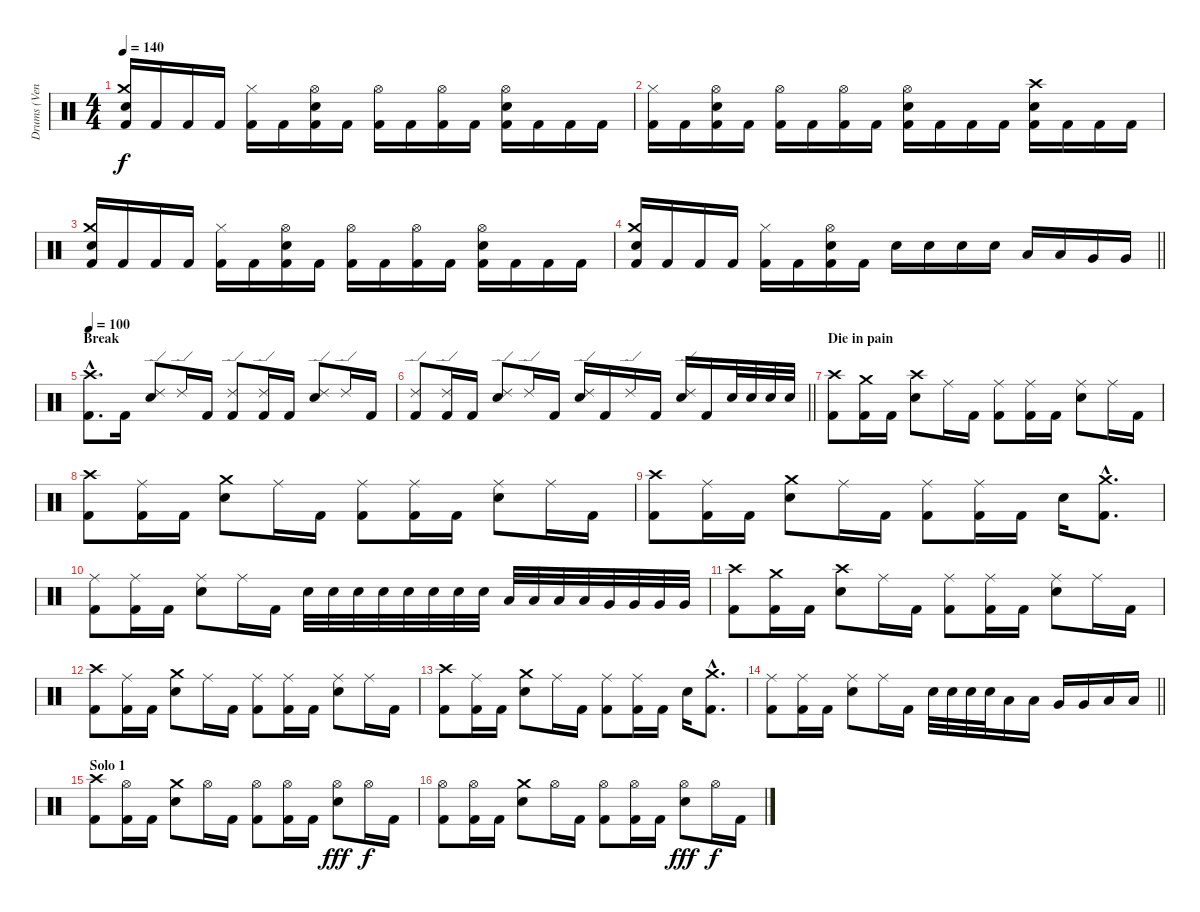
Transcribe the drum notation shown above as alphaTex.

\track ("Drums (Ventor)" "Drums (Ven") {instrument percussion}
\staff {score}
\articulation defaults
\ts (4 4)
\tempo 140
\clef neutral
\ks c
("Electric Snare (hit)" "Crash medium (hit)" "Kick (hit) 2").16{dy f} "Kick (hit) 2".16 "Kick (hit) 2".16 "Kick (hit) 2".16 ("Hi-Hat (closed)" "Kick (hit) 2").16 "Kick (hit) 2".16 ("Electric Snare (hit)" "Hi-Hat (open)" "Kick (hit) 2").16 "Kick (hit) 2".16 ("Hi-Hat (open)" "Kick (hit) 2").16 "Kick (hit) 2".16 ("Hi-Hat (open)" "Kick (hit) 2").16 "Kick (hit) 2".16 ("Electric Snare (hit)" "Hi-Hat (open)" "Kick (hit) 2").16 "Kick (hit) 2".16 "Kick (hit) 2".16 "Kick (hit) 2".16 |
("Hi-Hat (closed)" "Kick (hit) 2").16 "Kick (hit) 2".16 ("Electric Snare (hit)" "Hi-Hat (open)" "Kick (hit) 2").16 "Kick (hit) 2".16 ("Hi-Hat (open)" "Kick (hit) 2").16 "Kick (hit) 2".16 ("Hi-Hat (open)" "Kick (hit) 2").16 "Kick (hit) 2".16 ("Electric Snare (hit)" "Hi-Hat (open)" "Kick (hit) 2").16 "Kick (hit) 2".16 "Kick (hit) 2".16 "Kick (hit) 2".16 ("Electric Snare (hit)" "Crash high (hit)" "Kick (hit) 2").16 "Kick (hit) 2".16 "Kick (hit) 2".16 "Kick (hit) 2".16 |
("Electric Snare (hit)" "Crash medium (hit)" "Kick (hit) 2").16 "Kick (hit) 2".16 "Kick (hit) 2".16 "Kick (hit) 2".16 ("Hi-Hat (closed)" "Kick (hit) 2").16 "Kick (hit) 2".16 ("Electric Snare (hit)" "Hi-Hat (open)" "Kick (hit) 2").16 "Kick (hit) 2".16 ("Hi-Hat (open)" "Kick (hit) 2").16 "Kick (hit) 2".16 ("Hi-Hat (open)" "Kick (hit) 2").16 "Kick (hit) 2".16 ("Electric Snare (hit)" "Hi-Hat (open)" "Kick (hit) 2").16 "Kick (hit) 2".16 "Kick (hit) 2".16 "Kick (hit) 2".16 |
\barLineRight lightlight
("Electric Snare (hit)" "Crash medium (hit)" "Kick (hit) 2").16 "Kick (hit) 2".16 "Kick (hit) 2".16 "Kick (hit) 2".16 ("Hi-Hat (closed)" "Kick (hit) 2").16 "Kick (hit) 2".16 ("Electric Snare (hit)" "Hi-Hat (open)" "Kick (hit) 2").16 "Kick (hit) 2".16 "Electric Snare (hit)".16 "Electric Snare (hit)".16 "Electric Snare (hit)".16 "Electric Snare (hit)".16 "Low Tom (hit)".16 "Low Tom (hit)".16 "Very Low Tom (hit)".16 "Very Low Tom (hit)".16 |
\section ("" "Break")
\tempo 100
("Crash high (hit)"{hac} "Kick (hit) 2"{hac}).8{d} "Kick (hit) 2".16 ("Electric Snare (hit)" "Ride (edge) 2").8 "Ride (edge) 2".16 "Kick (hit) 2".16 ("Ride (edge) 2" "Kick (hit) 2").8 ("Ride (edge) 2" "Kick (hit) 2").16 "Kick (hit) 2".16 ("Electric Snare (hit)" "Ride (edge) 2").8 "Ride (edge) 2".16 "Kick (hit) 2".16 |
\barLineRight lightlight
("Ride (edge) 2" "Kick (hit) 2").8 ("Ride (edge) 2" "Kick (hit) 2").16 "Kick (hit) 2".16 ("Electric Snare (hit)" "Ride (edge) 2").8 "Ride (edge) 2".16 "Kick (hit) 2".16 ("Electric Snare (hit)" "Ride (edge) 2").16 "Kick (hit) 2".16 "Ride (edge) 2".16 "Kick (hit) 2".16 ("Electric Snare (hit)" "Ride (edge) 2").16 "Kick (hit) 2".16 "Electric Snare (hit)".32 "Electric Snare (hit)".32 "Electric Snare (hit)".32 "Electric Snare (hit)".32 |
\section ("" "Die in pain")
("Crash high (hit)" "Kick (hit) 2").8 ("Crash medium (hit)" "Kick (hit) 2").16 "Kick (hit) 2".16 ("Electric Snare (hit)" "Crash high (hit)").8 "Ride (middle)".16 "Kick (hit) 2".16 ("Ride (middle)" "Kick (hit) 2").8 ("Ride (middle)" "Kick (hit) 2").16 "Kick (hit) 2".16 ("Electric Snare (hit)" "Ride (middle)").8 "Ride (middle)".16 "Kick (hit) 2".16 |
("Crash high (hit)" "Kick (hit) 2").8 ("Ride (middle)" "Kick (hit) 2").16 "Kick (hit) 2".16 ("Electric Snare (hit)" "Crash medium (hit)").8 "Ride (middle)".16 "Kick (hit) 2".16 ("Ride (middle)" "Kick (hit) 2").8 ("Ride (middle)" "Kick (hit) 2").16 "Kick (hit) 2".16 ("Electric Snare (hit)" "Ride (middle)").8 "Ride (middle)".16 "Kick (hit) 2".16 |
("Crash high (hit)" "Kick (hit) 2").8 ("Ride (middle)" "Kick (hit) 2").16 "Kick (hit) 2".16 ("Electric Snare (hit)" "Crash medium (hit)").8 "Ride (middle)".16 "Kick (hit) 2".16 ("Ride (middle)" "Kick (hit) 2").8 ("Ride (middle)" "Kick (hit) 2").16 "Kick (hit) 2".16 "Electric Snare (hit)".16 ("Crash medium (hit)"{hac} "Kick (hit) 2"{hac}).8{d} |
("Ride (middle)" "Kick (hit) 2").8 ("Ride (middle)" "Kick (hit) 2").16 "Kick (hit) 2".16 ("Electric Snare (hit)" "Ride (middle)").8 "Ride (middle)".16 "Kick (hit) 2".16 "Electric Snare (hit)".32 "Electric Snare (hit)".32 "Electric Snare (hit)".32 "Electric Snare (hit)".32 "Electric Snare (hit)".32 "Electric Snare (hit)".32 "Electric Snare (hit)".32 "Electric Snare (hit)".32 "Low Tom (hit)".32 "Low Tom (hit)".32 "Low Tom (hit)".32 "Low Tom (hit)".32 "Very Low Tom (hit)".32 "Very Low Tom (hit)".32 "Very Low Tom (hit)".32 "Very Low Tom (hit)".32 |
("Crash high (hit)" "Kick (hit) 2").8 ("Crash medium (hit)" "Kick (hit) 2").16 "Kick (hit) 2".16 ("Electric Snare (hit)" "Crash high (hit)").8 "Ride (middle)".16 "Kick (hit) 2".16 ("Ride (middle)" "Kick (hit) 2").8 ("Ride (middle)" "Kick (hit) 2").16 "Kick (hit) 2".16 ("Electric Snare (hit)" "Ride (middle)").8 "Ride (middle)".16 "Kick (hit) 2".16 |
("Crash high (hit)" "Kick (hit) 2").8 ("Ride (middle)" "Kick (hit) 2").16 "Kick (hit) 2".16 ("Electric Snare (hit)" "Crash medium (hit)").8 "Ride (middle)".16 "Kick (hit) 2".16 ("Ride (middle)" "Kick (hit) 2").8 ("Ride (middle)" "Kick (hit) 2").16 "Kick (hit) 2".16 ("Electric Snare (hit)" "Ride (middle)").8 "Ride (middle)".16 "Kick (hit) 2".16 |
("Crash high (hit)" "Kick (hit) 2").8 ("Ride (middle)" "Kick (hit) 2").16 "Kick (hit) 2".16 ("Electric Snare (hit)" "Crash medium (hit)").8 "Ride (middle)".16 "Kick (hit) 2".16 ("Ride (middle)" "Kick (hit) 2").8 ("Ride (middle)" "Kick (hit) 2").16 "Kick (hit) 2".16 "Electric Snare (hit)".16 ("Crash medium (hit)"{hac} "Kick (hit) 2"{hac}).8{d} |
\barLineRight lightlight
("Ride (middle)" "Kick (hit) 2").8 ("Ride (middle)" "Kick (hit) 2").16 "Kick (hit) 2".16 ("Electric Snare (hit)" "Ride (middle)").8 "Ride (middle)".16 "Kick (hit) 2".16 "Electric Snare (hit)".32 "Electric Snare (hit)".32 "Electric Snare (hit)".32 "Electric Snare (hit)".32 "Low Tom (hit)".16 "Low Tom (hit)".16 "Very Low Tom (hit)".16 "Very Low Tom (hit)".16 "Low Floor Tom (hit)".16 "Low Floor Tom (hit)".16 |
\section ("" "Solo 1")
("Crash high (hit)" "Kick (hit) 2").8 ("Hi-Hat (open)" "Kick (hit) 2").16 "Kick (hit) 2".16 ("Electric Snare (hit)" "Crash medium (hit)").8 "Hi-Hat (open)".16 "Kick (hit) 2".16 ("Hi-Hat (open)" "Kick (hit) 2").8 ("Hi-Hat (open)" "Kick (hit) 2").16 "Kick (hit) 2".16 ("Electric Snare (hit)" "Hi-Hat (open)").8{dy fff} "Hi-Hat (open)".16{dy f} "Kick (hit) 2".16 |
("Hi-Hat (open)" "Kick (hit) 2").8 ("Hi-Hat (open)" "Kick (hit) 2").16 "Kick (hit) 2".16 ("Electric Snare (hit)" "Crash medium (hit)").8 "Hi-Hat (open)".16 "Kick (hit) 2".16 ("Hi-Hat (open)" "Kick (hit) 2").8 ("Hi-Hat (open)" "Kick (hit) 2").16 "Kick (hit) 2".16 ("Electric Snare (hit)" "Hi-Hat (open)").8{dy fff} "Hi-Hat (open)".16{dy f} "Kick (hit) 2".16
